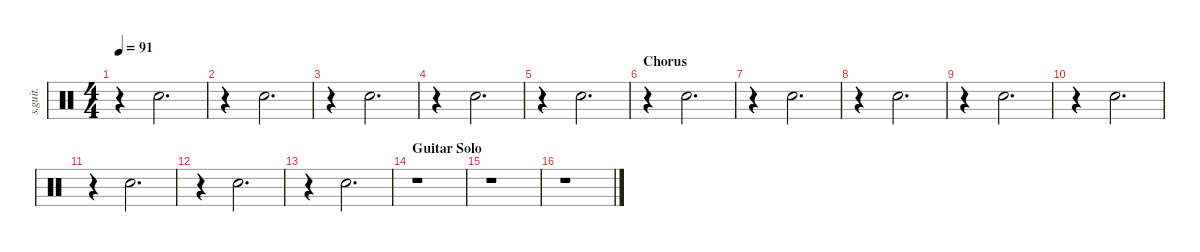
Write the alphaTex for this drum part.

\defaultSystemsLayout 4
\hideDynamics
\bracketExtendMode nobrackets
\track ("Hand Clap" "s.guit.") {instrument percussion}
\staff {score}
\articulation defaults
\ts (4 4)
\tempo 91
\clef neutral
\ks c
r.4{dy fff} "Hand Clap (hit)".2{d} |
r.4 "Hand Clap (hit)".2{d} |
r.4 "Hand Clap (hit)".2{d} |
r.4 "Hand Clap (hit)".2{d} |
r.4 "Hand Clap (hit)".2{d} |
\section ("" "Chorus")
r.4 "Hand Clap (hit)".2{d} |
r.4 "Hand Clap (hit)".2{d} |
r.4 "Hand Clap (hit)".2{d} |
r.4 "Hand Clap (hit)".2{d} |
r.4 "Hand Clap (hit)".2{d} |
r.4 "Hand Clap (hit)".2{d} |
r.4 "Hand Clap (hit)".2{d} |
r.4 "Hand Clap (hit)".2{d} |
\section ("" "Guitar Solo")
r.1 |
r.1 |
r.1
